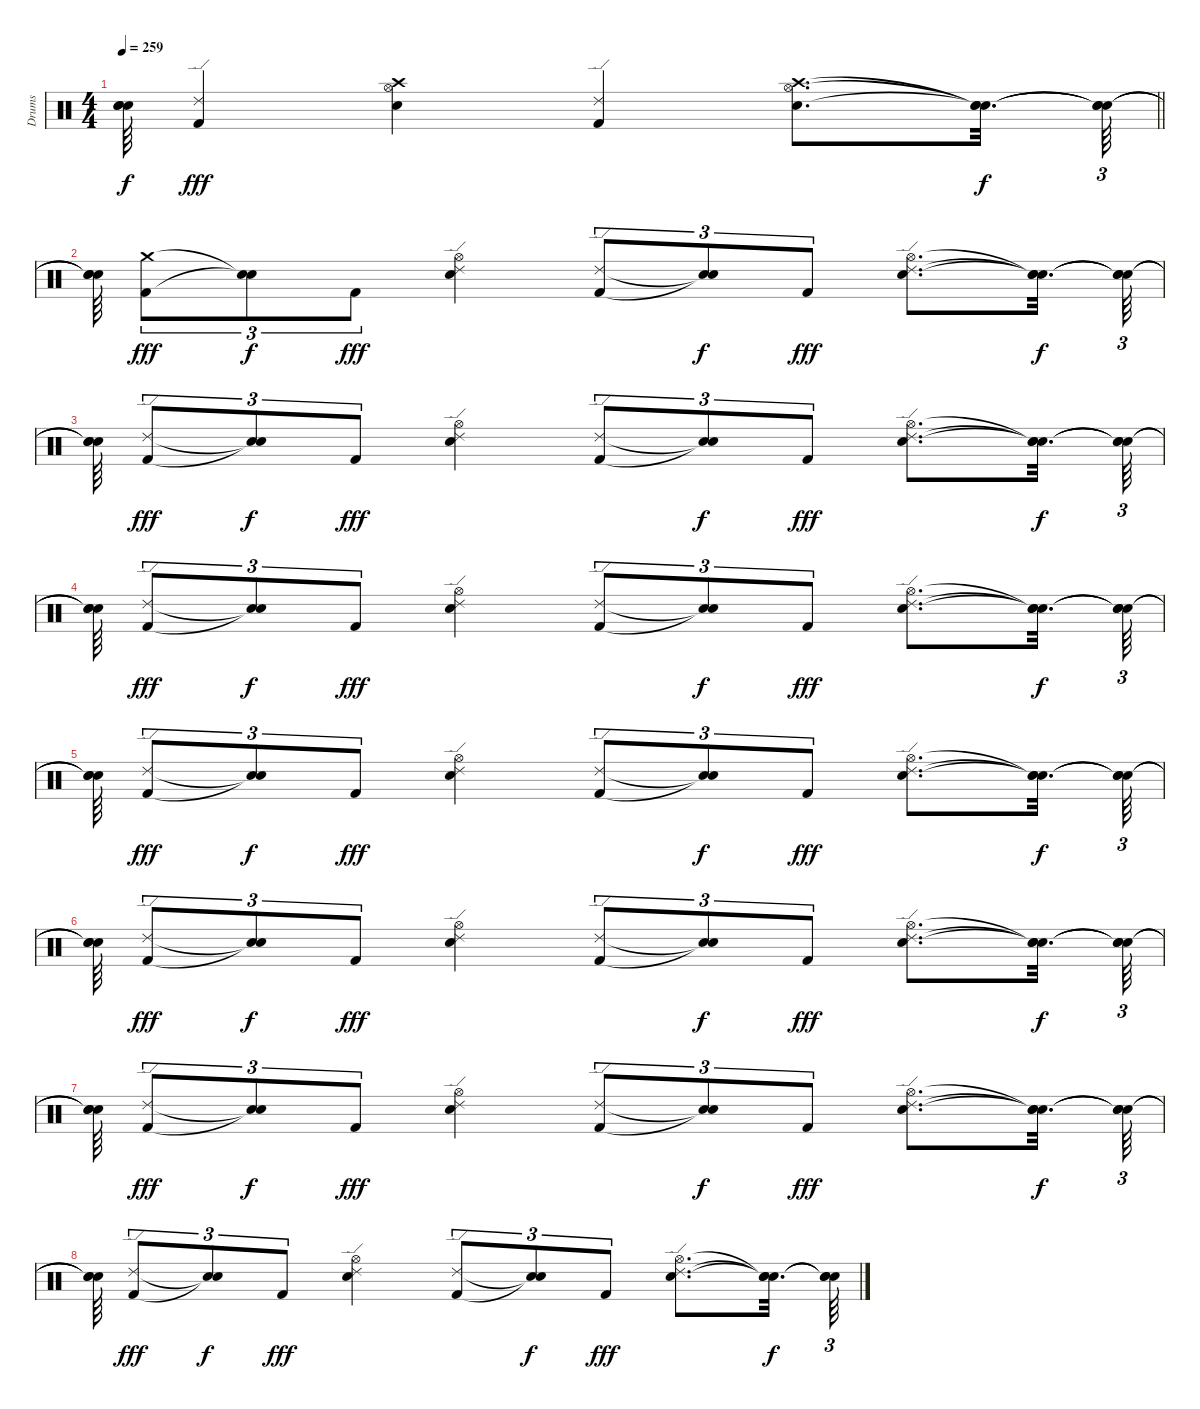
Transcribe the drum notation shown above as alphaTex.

\track ("Drums" "Drums") {instrument percussion}
\staff {score}
\articulation defaults
\ts (4 4)
\tempo 259
\clef neutral
\barLineRight lightlight
\ks c
("Snare (hit)"{t} "Snare (hit)"{t} "Snare (hit)"{t}).64{dy f} ("Kick (hit) 2" "Ride (edge) 2").4{dy fff} ("Electric Snare (hit)" "Crash high (hit)" "Hi-Hat (open)").4 ("Kick (hit) 2" "Ride (edge) 2").4 ("Electric Snare (hit)" "Crash high (hit)" "Hi-Hat (open)").8{d} ("Snare (hit)"{t} "Snare (hit)"{t} "Snare (hit)"{t}).32{d dy f} ("Snare (hit)"{t} "Snare (hit)"{t} "Snare (hit)"{t}).64{tu (3 2)} |
\section ("" "")
("Snare (hit)"{t} "Snare (hit)"{t} "Snare (hit)"{t}).64 ("Kick (hit) 2" "Crash medium (hit)").8{tu (3 2) dy fff} ("Snare (hit)"{t} "Snare (hit)"{t}).8{tu (3 2) dy f} "Kick (hit) 2".8{tu (3 2) dy fff} ("Electric Snare (hit)" "Ride (edge) 2" "Hi-Hat (open)").4 ("Kick (hit) 2" "Ride (edge) 2").8{tu (3 2)} ("Snare (hit)"{t} "Snare (hit)"{t}).8{tu (3 2) dy f} "Kick (hit) 2".8{tu (3 2) dy fff} ("Electric Snare (hit)" "Ride (edge) 2" "Hi-Hat (open)").8{d} ("Snare (hit)"{t} "Snare (hit)"{t} "Snare (hit)"{t}).32{d dy f} ("Snare (hit)"{t} "Snare (hit)"{t} "Snare (hit)"{t}).64{tu (3 2)} |
("Snare (hit)"{t} "Snare (hit)"{t} "Snare (hit)"{t}).64 ("Kick (hit) 2" "Ride (edge) 2").8{tu (3 2) dy fff} ("Snare (hit)"{t} "Snare (hit)"{t}).8{tu (3 2) dy f} "Kick (hit) 2".8{tu (3 2) dy fff} ("Electric Snare (hit)" "Ride (edge) 2" "Hi-Hat (open)").4 ("Kick (hit) 2" "Ride (edge) 2").8{tu (3 2)} ("Snare (hit)"{t} "Snare (hit)"{t}).8{tu (3 2) dy f} "Kick (hit) 2".8{tu (3 2) dy fff} ("Electric Snare (hit)" "Ride (edge) 2" "Hi-Hat (open)").8{d} ("Snare (hit)"{t} "Snare (hit)"{t} "Snare (hit)"{t}).32{d dy f} ("Snare (hit)"{t} "Snare (hit)"{t} "Snare (hit)"{t}).64{tu (3 2)} |
("Snare (hit)"{t} "Snare (hit)"{t} "Snare (hit)"{t}).64 ("Kick (hit) 2" "Ride (edge) 2").8{tu (3 2) dy fff} ("Snare (hit)"{t} "Snare (hit)"{t}).8{tu (3 2) dy f} "Kick (hit) 2".8{tu (3 2) dy fff} ("Electric Snare (hit)" "Ride (edge) 2" "Hi-Hat (open)").4 ("Kick (hit) 2" "Ride (edge) 2").8{tu (3 2)} ("Snare (hit)"{t} "Snare (hit)"{t}).8{tu (3 2) dy f} "Kick (hit) 2".8{tu (3 2) dy fff} ("Electric Snare (hit)" "Ride (edge) 2" "Hi-Hat (open)").8{d} ("Snare (hit)"{t} "Snare (hit)"{t} "Snare (hit)"{t}).32{d dy f} ("Snare (hit)"{t} "Snare (hit)"{t} "Snare (hit)"{t}).64{tu (3 2)} |
("Snare (hit)"{t} "Snare (hit)"{t} "Snare (hit)"{t}).64 ("Kick (hit) 2" "Ride (edge) 2").8{tu (3 2) dy fff} ("Snare (hit)"{t} "Snare (hit)"{t}).8{tu (3 2) dy f} "Kick (hit) 2".8{tu (3 2) dy fff} ("Electric Snare (hit)" "Ride (edge) 2" "Hi-Hat (open)").4 ("Kick (hit) 2" "Ride (edge) 2").8{tu (3 2)} ("Snare (hit)"{t} "Snare (hit)"{t}).8{tu (3 2) dy f} "Kick (hit) 2".8{tu (3 2) dy fff} ("Electric Snare (hit)" "Ride (edge) 2" "Hi-Hat (open)").8{d} ("Snare (hit)"{t} "Snare (hit)"{t} "Snare (hit)"{t}).32{d dy f} ("Snare (hit)"{t} "Snare (hit)"{t} "Snare (hit)"{t}).64{tu (3 2)} |
("Snare (hit)"{t} "Snare (hit)"{t} "Snare (hit)"{t}).64 ("Kick (hit) 2" "Ride (edge) 2").8{tu (3 2) dy fff} ("Snare (hit)"{t} "Snare (hit)"{t}).8{tu (3 2) dy f} "Kick (hit) 2".8{tu (3 2) dy fff} ("Electric Snare (hit)" "Ride (edge) 2" "Hi-Hat (open)").4 ("Kick (hit) 2" "Ride (edge) 2").8{tu (3 2)} ("Snare (hit)"{t} "Snare (hit)"{t}).8{tu (3 2) dy f} "Kick (hit) 2".8{tu (3 2) dy fff} ("Electric Snare (hit)" "Ride (edge) 2" "Hi-Hat (open)").8{d} ("Snare (hit)"{t} "Snare (hit)"{t} "Snare (hit)"{t}).32{d dy f} ("Snare (hit)"{t} "Snare (hit)"{t} "Snare (hit)"{t}).64{tu (3 2)} |
("Snare (hit)"{t} "Snare (hit)"{t} "Snare (hit)"{t}).64 ("Kick (hit) 2" "Ride (edge) 2").8{tu (3 2) dy fff} ("Snare (hit)"{t} "Snare (hit)"{t}).8{tu (3 2) dy f} "Kick (hit) 2".8{tu (3 2) dy fff} ("Electric Snare (hit)" "Ride (edge) 2" "Hi-Hat (open)").4 ("Kick (hit) 2" "Ride (edge) 2").8{tu (3 2)} ("Snare (hit)"{t} "Snare (hit)"{t}).8{tu (3 2) dy f} "Kick (hit) 2".8{tu (3 2) dy fff} ("Electric Snare (hit)" "Ride (edge) 2" "Hi-Hat (open)").8{d} ("Snare (hit)"{t} "Snare (hit)"{t} "Snare (hit)"{t}).32{d dy f} ("Snare (hit)"{t} "Snare (hit)"{t} "Snare (hit)"{t}).64{tu (3 2)} |
("Snare (hit)"{t} "Snare (hit)"{t} "Snare (hit)"{t}).64 ("Kick (hit) 2" "Ride (edge) 2").8{tu (3 2) dy fff} ("Snare (hit)"{t} "Snare (hit)"{t}).8{tu (3 2) dy f} "Kick (hit) 2".8{tu (3 2) dy fff} ("Electric Snare (hit)" "Ride (edge) 2" "Hi-Hat (open)").4 ("Kick (hit) 2" "Ride (edge) 2").8{tu (3 2)} ("Snare (hit)"{t} "Snare (hit)"{t}).8{tu (3 2) dy f} "Kick (hit) 2".8{tu (3 2) dy fff} ("Electric Snare (hit)" "Ride (edge) 2" "Hi-Hat (open)").8{d} ("Snare (hit)"{t} "Snare (hit)"{t} "Snare (hit)"{t}).32{d dy f} ("Snare (hit)"{t} "Snare (hit)"{t} "Snare (hit)"{t}).64{tu (3 2)}
